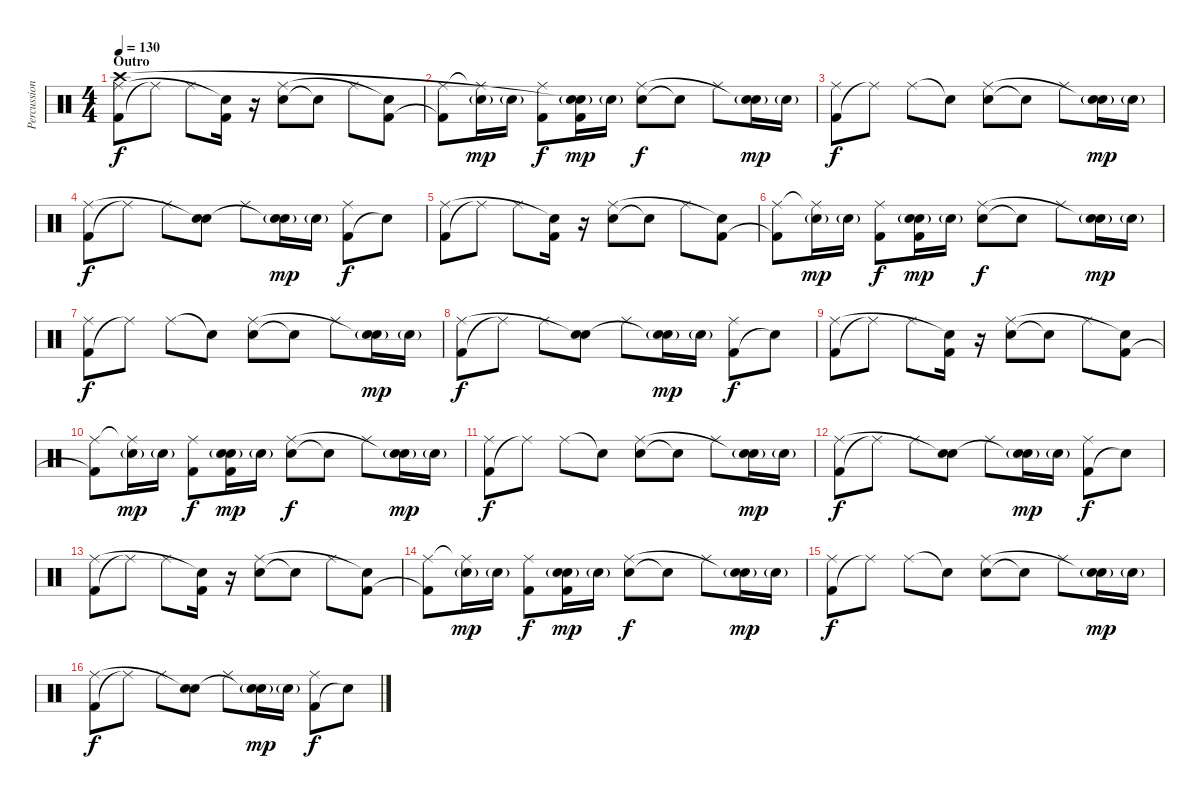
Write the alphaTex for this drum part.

\track ("Percussion" "Percussion") {instrument percussion}
\staff {score}
\articulation defaults
\ts (4 4)
\section ("" "Outro")
\tempo 130
\clef neutral
\ks c
("Kick (hit) 2" "Ride (middle)" "Crash high (hit)").8{dy f} "Ride (middle)"{t}.8 "Ride (middle)".8 ("Kick (hit) 2" "Snare (hit)"{t}).16 r.16 ("Electric Snare (hit)" "Ride (middle)").8 "Snare (hit)"{t}.8 "Ride (middle)".8 ("Kick (hit) 2" "Snare (hit)"{t}).8 |
("Kick (hit) 2"{t} "Ride (middle)").8 ("Electric Snare (hit)"{g} "Ride (middle)"{t}).16{dy mp} "Electric Snare (hit)"{g}.16 ("Kick (hit) 2" "Ride (middle)").8{dy f} ("Kick (hit) 2" "Electric Snare (hit)"{g} "Snare (hit)"{t}).16{dy mp} "Electric Snare (hit)"{g}.16 ("Electric Snare (hit)" "Ride (middle)").8{dy f} "Snare (hit)"{t}.8 "Ride (middle)".8 ("Electric Snare (hit)"{g} "Snare (hit)"{t}).16{dy mp} "Electric Snare (hit)"{g}.16 |
("Kick (hit) 2" "Ride (middle)").8{dy f} "Ride (middle)"{t}.8 "Ride (middle)".8 "Snare (hit)"{t}.8 ("Electric Snare (hit)" "Ride (middle)").8 "Snare (hit)"{t}.8 "Ride (middle)".8 ("Electric Snare (hit)"{g} "Snare (hit)"{t}).16{dy mp} "Electric Snare (hit)"{g}.16 |
("Kick (hit) 2" "Ride (middle)").8{dy f} "Ride (middle)"{t}.8 "Ride (middle)".8 ("Electric Snare (hit)" "Snare (hit)"{t}).8 "Ride (middle)".8 ("Electric Snare (hit)"{g} "Snare (hit)"{t}).16{dy mp} "Electric Snare (hit)"{g}.16 ("Kick (hit) 2" "Ride (middle)").8{dy f} "Snare (hit)"{t}.8 |
("Kick (hit) 2" "Ride (middle)").8 "Ride (middle)"{t}.8 "Ride (middle)".8 ("Kick (hit) 2" "Snare (hit)"{t}).16 r.16 ("Electric Snare (hit)" "Ride (middle)").8 "Snare (hit)"{t}.8 "Ride (middle)".8 ("Kick (hit) 2" "Snare (hit)"{t}).8 |
("Kick (hit) 2"{t} "Ride (middle)").8 ("Electric Snare (hit)"{g} "Ride (middle)"{t}).16{dy mp} "Electric Snare (hit)"{g}.16 ("Kick (hit) 2" "Ride (middle)").8{dy f} ("Kick (hit) 2" "Electric Snare (hit)"{g} "Snare (hit)").16{dy mp} "Electric Snare (hit)"{g}.16 ("Electric Snare (hit)" "Ride (middle)").8{dy f} "Snare (hit)"{t}.8 "Ride (middle)".8 ("Electric Snare (hit)"{g} "Snare (hit)"{t}).16{dy mp} "Electric Snare (hit)"{g}.16 |
("Kick (hit) 2" "Ride (middle)").8{dy f} "Ride (middle)"{t}.8 "Ride (middle)".8 "Snare (hit)"{t}.8 ("Electric Snare (hit)" "Ride (middle)").8 "Snare (hit)"{t}.8 "Ride (middle)".8 ("Electric Snare (hit)"{g} "Snare (hit)"{t}).16{dy mp} "Electric Snare (hit)"{g}.16 |
("Kick (hit) 2" "Ride (middle)").8{dy f} "Ride (middle)"{t}.8 "Ride (middle)".8 ("Electric Snare (hit)" "Snare (hit)"{t}).8 "Ride (middle)".8 ("Electric Snare (hit)"{g} "Snare (hit)"{t}).16{dy mp} "Electric Snare (hit)"{g}.16 ("Kick (hit) 2" "Ride (middle)").8{dy f} "Snare (hit)"{t}.8 |
("Kick (hit) 2" "Ride (middle)").8 "Ride (middle)"{t}.8 "Ride (middle)".8 ("Kick (hit) 2" "Snare (hit)"{t}).16 r.16 ("Electric Snare (hit)" "Ride (middle)").8 "Snare (hit)"{t}.8 "Ride (middle)".8 ("Kick (hit) 2" "Snare (hit)"{t}).8 |
("Kick (hit) 2"{t} "Ride (middle)").8 ("Electric Snare (hit)"{g} "Ride (middle)"{t}).16{dy mp} "Electric Snare (hit)"{g}.16 ("Kick (hit) 2" "Ride (middle)").8{dy f} ("Kick (hit) 2" "Electric Snare (hit)"{g} "Snare (hit)").16{dy mp} "Electric Snare (hit)"{g}.16 ("Electric Snare (hit)" "Ride (middle)").8{dy f} "Snare (hit)"{t}.8 "Ride (middle)".8 ("Electric Snare (hit)"{g} "Snare (hit)"{t}).16{dy mp} "Electric Snare (hit)"{g}.16 |
("Kick (hit) 2" "Ride (middle)").8{dy f} "Ride (middle)"{t}.8 "Ride (middle)".8 "Snare (hit)"{t}.8 ("Electric Snare (hit)" "Ride (middle)").8 "Snare (hit)"{t}.8 "Ride (middle)".8 ("Electric Snare (hit)"{g} "Snare (hit)"{t}).16{dy mp} "Electric Snare (hit)"{g}.16 |
("Kick (hit) 2" "Ride (middle)").8{dy f} "Ride (middle)"{t}.8 "Ride (middle)".8 ("Electric Snare (hit)" "Snare (hit)"{t}).8 "Ride (middle)".8 ("Electric Snare (hit)"{g} "Snare (hit)"{t}).16{dy mp} "Electric Snare (hit)"{g}.16 ("Kick (hit) 2" "Ride (middle)").8{dy f} "Snare (hit)"{t}.8 |
("Kick (hit) 2" "Ride (middle)").8 "Ride (middle)"{t}.8 "Ride (middle)".8 ("Kick (hit) 2" "Snare (hit)"{t}).16 r.16 ("Electric Snare (hit)" "Ride (middle)").8 "Snare (hit)"{t}.8 "Ride (middle)".8 ("Kick (hit) 2" "Snare (hit)"{t}).8 |
("Kick (hit) 2"{t} "Ride (middle)").8 ("Electric Snare (hit)"{g} "Ride (middle)"{t}).16{dy mp} "Electric Snare (hit)"{g}.16 ("Kick (hit) 2" "Ride (middle)").8{dy f} ("Kick (hit) 2" "Electric Snare (hit)"{g} "Snare (hit)").16{dy mp} "Electric Snare (hit)"{g}.16 ("Electric Snare (hit)" "Ride (middle)").8{dy f} "Snare (hit)"{t}.8 "Ride (middle)".8 ("Electric Snare (hit)"{g} "Snare (hit)"{t}).16{dy mp} "Electric Snare (hit)"{g}.16 |
("Kick (hit) 2" "Ride (middle)").8{dy f} "Ride (middle)"{t}.8 "Ride (middle)".8 "Snare (hit)"{t}.8 ("Electric Snare (hit)" "Ride (middle)").8 "Snare (hit)"{t}.8 "Ride (middle)".8 ("Electric Snare (hit)"{g} "Snare (hit)"{t}).16{dy mp} "Electric Snare (hit)"{g}.16 |
("Kick (hit) 2" "Ride (middle)").8{dy f} "Ride (middle)"{t}.8 "Ride (middle)".8 ("Electric Snare (hit)" "Snare (hit)"{t}).8 "Ride (middle)".8 ("Electric Snare (hit)"{g} "Snare (hit)"{t}).16{dy mp} "Electric Snare (hit)"{g}.16 ("Kick (hit) 2" "Ride (middle)").8{dy f} "Snare (hit)"{t}.8
